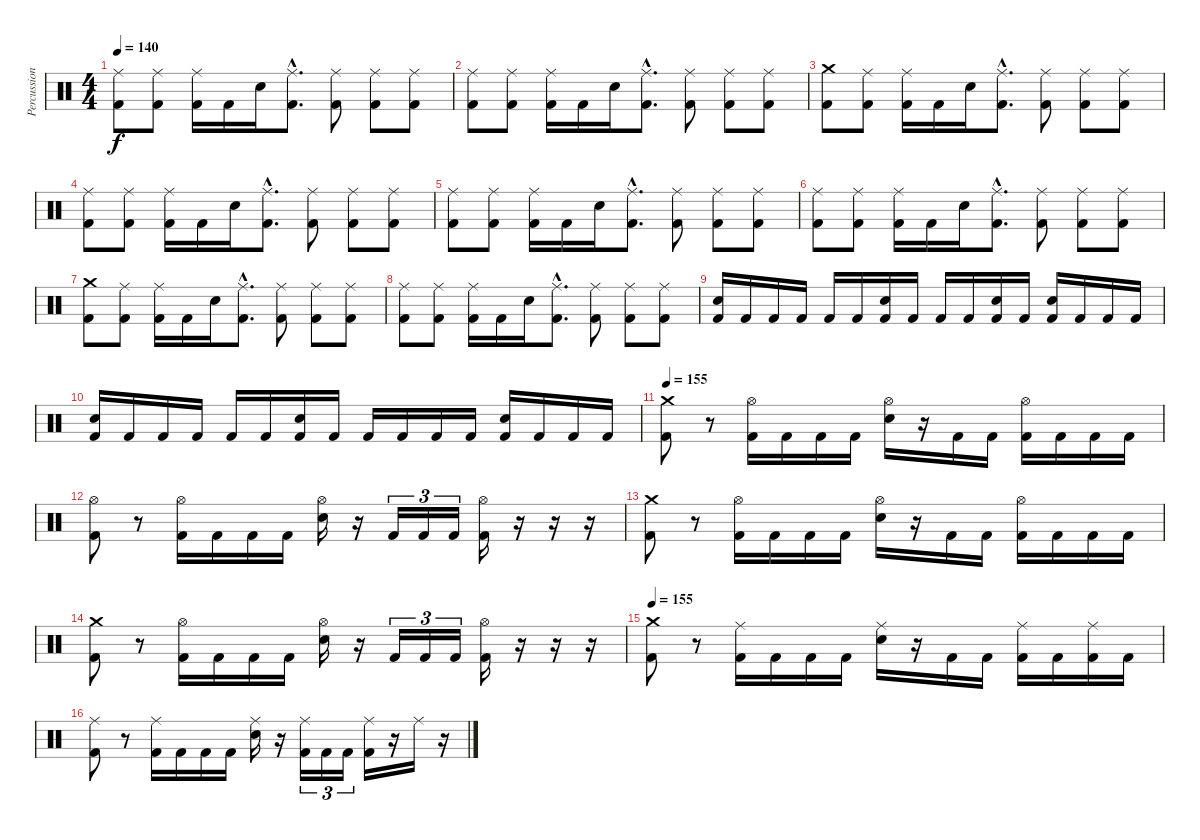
\track ("Percussion" "Percussion") {instrument percussion}
\staff {score}
\articulation defaults
\ts (4 4)
\tempo 140
\clef neutral
\ks c
("Ride (middle)" "Kick (hit) 2").8{dy f} ("Ride (middle)" "Kick (hit) 2").8 ("Ride (middle)" "Kick (hit) 2").16 "Kick (hit) 2".16 "Electric Snare (hit)".16 ("Ride (middle)"{hac} "Kick (hit) 2"{hac}).8{d} ("Ride (middle)" "Kick (hit) 2").8 ("Ride (middle)" "Kick (hit) 2").8 ("Ride (middle)" "Kick (hit) 2").8 |
("Ride (middle)" "Kick (hit) 2").8 ("Ride (middle)" "Kick (hit) 2").8 ("Ride (middle)" "Kick (hit) 2").16 "Kick (hit) 2".16 "Electric Snare (hit)".16 ("Ride (middle)"{hac} "Kick (hit) 2"{hac}).8{d} ("Ride (middle)" "Kick (hit) 2").8 ("Ride (middle)" "Kick (hit) 2").8 ("Ride (middle)" "Kick (hit) 2").8 |
("Crash medium (hit)" "Kick (hit) 2").8 ("Ride (middle)" "Kick (hit) 2").8 ("Ride (middle)" "Kick (hit) 2").16 "Kick (hit) 2".16 "Electric Snare (hit)".16 ("Ride (middle)"{hac} "Kick (hit) 2"{hac}).8{d} ("Ride (middle)" "Kick (hit) 2").8 ("Ride (middle)" "Kick (hit) 2").8 ("Ride (middle)" "Kick (hit) 2").8 |
("Ride (middle)" "Kick (hit) 2").8 ("Ride (middle)" "Kick (hit) 2").8 ("Ride (middle)" "Kick (hit) 2").16 "Kick (hit) 2".16 "Electric Snare (hit)".16 ("Ride (middle)"{hac} "Kick (hit) 2"{hac}).8{d} ("Ride (middle)" "Kick (hit) 2").8 ("Ride (middle)" "Kick (hit) 2").8 ("Ride (middle)" "Kick (hit) 2").8 |
("Ride (middle)" "Kick (hit) 2").8 ("Ride (middle)" "Kick (hit) 2").8 ("Ride (middle)" "Kick (hit) 2").16 "Kick (hit) 2".16 "Electric Snare (hit)".16 ("Ride (middle)"{hac} "Kick (hit) 2"{hac}).8{d} ("Ride (middle)" "Kick (hit) 2").8 ("Ride (middle)" "Kick (hit) 2").8 ("Ride (middle)" "Kick (hit) 2").8 |
("Ride (middle)" "Kick (hit) 2").8 ("Ride (middle)" "Kick (hit) 2").8 ("Ride (middle)" "Kick (hit) 2").16 "Kick (hit) 2".16 "Electric Snare (hit)".16 ("Ride (middle)"{hac} "Kick (hit) 2"{hac}).8{d} ("Ride (middle)" "Kick (hit) 2").8 ("Ride (middle)" "Kick (hit) 2").8 ("Ride (middle)" "Kick (hit) 2").8 |
("Crash medium (hit)" "Kick (hit) 2").8 ("Ride (middle)" "Kick (hit) 2").8 ("Ride (middle)" "Kick (hit) 2").16 "Kick (hit) 2".16 "Electric Snare (hit)".16 ("Ride (middle)"{hac} "Kick (hit) 2"{hac}).8{d} ("Ride (middle)" "Kick (hit) 2").8 ("Ride (middle)" "Kick (hit) 2").8 ("Ride (middle)" "Kick (hit) 2").8 |
("Ride (middle)" "Kick (hit) 2").8 ("Ride (middle)" "Kick (hit) 2").8 ("Ride (middle)" "Kick (hit) 2").16 "Kick (hit) 2".16 "Electric Snare (hit)".16 ("Ride (middle)"{hac} "Kick (hit) 2"{hac}).8{d} ("Ride (middle)" "Kick (hit) 2").8 ("Ride (middle)" "Kick (hit) 2").8 ("Ride (middle)" "Kick (hit) 2").8 |
("Electric Snare (hit)" "Kick (hit) 2").16 "Kick (hit) 2".16 "Kick (hit) 2".16 "Kick (hit) 2".16 "Kick (hit) 2".16 "Kick (hit) 2".16 ("Electric Snare (hit)" "Kick (hit) 2").16 "Kick (hit) 2".16 "Kick (hit) 2".16 "Kick (hit) 2".16 ("Electric Snare (hit)" "Kick (hit) 2").16 "Kick (hit) 2".16 ("Electric Snare (hit)" "Kick (hit) 2").16 "Kick (hit) 2".16 "Kick (hit) 2".16 "Kick (hit) 2".16 |
("Electric Snare (hit)" "Kick (hit) 2").16 "Kick (hit) 2".16 "Kick (hit) 2".16 "Kick (hit) 2".16 "Kick (hit) 2".16 "Kick (hit) 2".16 ("Electric Snare (hit)" "Kick (hit) 2").16 "Kick (hit) 2".16 "Kick (hit) 2".16 "Kick (hit) 2".16 "Kick (hit) 2".16 "Kick (hit) 2".16 ("Electric Snare (hit)" "Kick (hit) 2").16 "Kick (hit) 2".16 "Kick (hit) 2".16 "Kick (hit) 2".16 |
\tempo 155
("Crash medium (hit)" "Kick (hit) 2").8 r.8 ("Hi-Hat (open)" "Kick (hit) 2").16 "Kick (hit) 2".16 "Kick (hit) 2".16 "Kick (hit) 2".16 ("Hi-Hat (open)" "Electric Snare (hit)").16 r.16 "Kick (hit) 2".16 "Kick (hit) 2".16 ("Hi-Hat (open)" "Kick (hit) 2").16 "Kick (hit) 2".16 "Kick (hit) 2".16 "Kick (hit) 2".16 |
("Hi-Hat (open)" "Kick (hit) 2").8 r.8 ("Hi-Hat (open)" "Kick (hit) 2").16 "Kick (hit) 2".16 "Kick (hit) 2".16 "Kick (hit) 2".16 ("Hi-Hat (open)" "Electric Snare (hit)").16 r.16 "Kick (hit) 2".16{tu (3 2)} "Kick (hit) 2".16{tu (3 2)} "Kick (hit) 2".16{tu (3 2)} ("Hi-Hat (open)" "Kick (hit) 2").16 r.16 r.16 r.16 |
("Crash medium (hit)" "Kick (hit) 2").8 r.8 ("Hi-Hat (open)" "Kick (hit) 2").16 "Kick (hit) 2".16 "Kick (hit) 2".16 "Kick (hit) 2".16 ("Hi-Hat (open)" "Electric Snare (hit)").16 r.16 "Kick (hit) 2".16 "Kick (hit) 2".16 ("Hi-Hat (open)" "Kick (hit) 2").16 "Kick (hit) 2".16 "Kick (hit) 2".16 "Kick (hit) 2".16 |
("Crash medium (hit)" "Kick (hit) 2").8 r.8 ("Hi-Hat (open)" "Kick (hit) 2").16 "Kick (hit) 2".16 "Kick (hit) 2".16 "Kick (hit) 2".16 ("Hi-Hat (open)" "Electric Snare (hit)").16 r.16 "Kick (hit) 2".16{tu (3 2)} "Kick (hit) 2".16{tu (3 2)} "Kick (hit) 2".16{tu (3 2)} ("Hi-Hat (open)" "Kick (hit) 2").16 r.16 r.16 r.16 |
\tempo 155
("Crash medium (hit)" "Kick (hit) 2").8 r.8 ("Ride (middle)" "Kick (hit) 2").16 "Kick (hit) 2".16 "Kick (hit) 2".16 "Kick (hit) 2".16 ("Ride (middle)" "Electric Snare (hit)").16 r.16 "Kick (hit) 2".16 "Kick (hit) 2".16 ("Ride (middle)" "Kick (hit) 2").16 "Kick (hit) 2".16 ("Ride (middle)" "Kick (hit) 2").16 "Kick (hit) 2".16 |
("Ride (middle)" "Kick (hit) 2").8 r.8 ("Ride (middle)" "Kick (hit) 2").16 "Kick (hit) 2".16 "Kick (hit) 2".16 "Kick (hit) 2".16 ("Ride (middle)" "Electric Snare (hit)").16 r.16 ("Ride (middle)" "Kick (hit) 2").16{tu (3 2)} "Kick (hit) 2".16{tu (3 2)} "Kick (hit) 2".16{tu (3 2)} ("Ride (middle)" "Kick (hit) 2").16 r.16 "Ride (middle)".16 r.16
